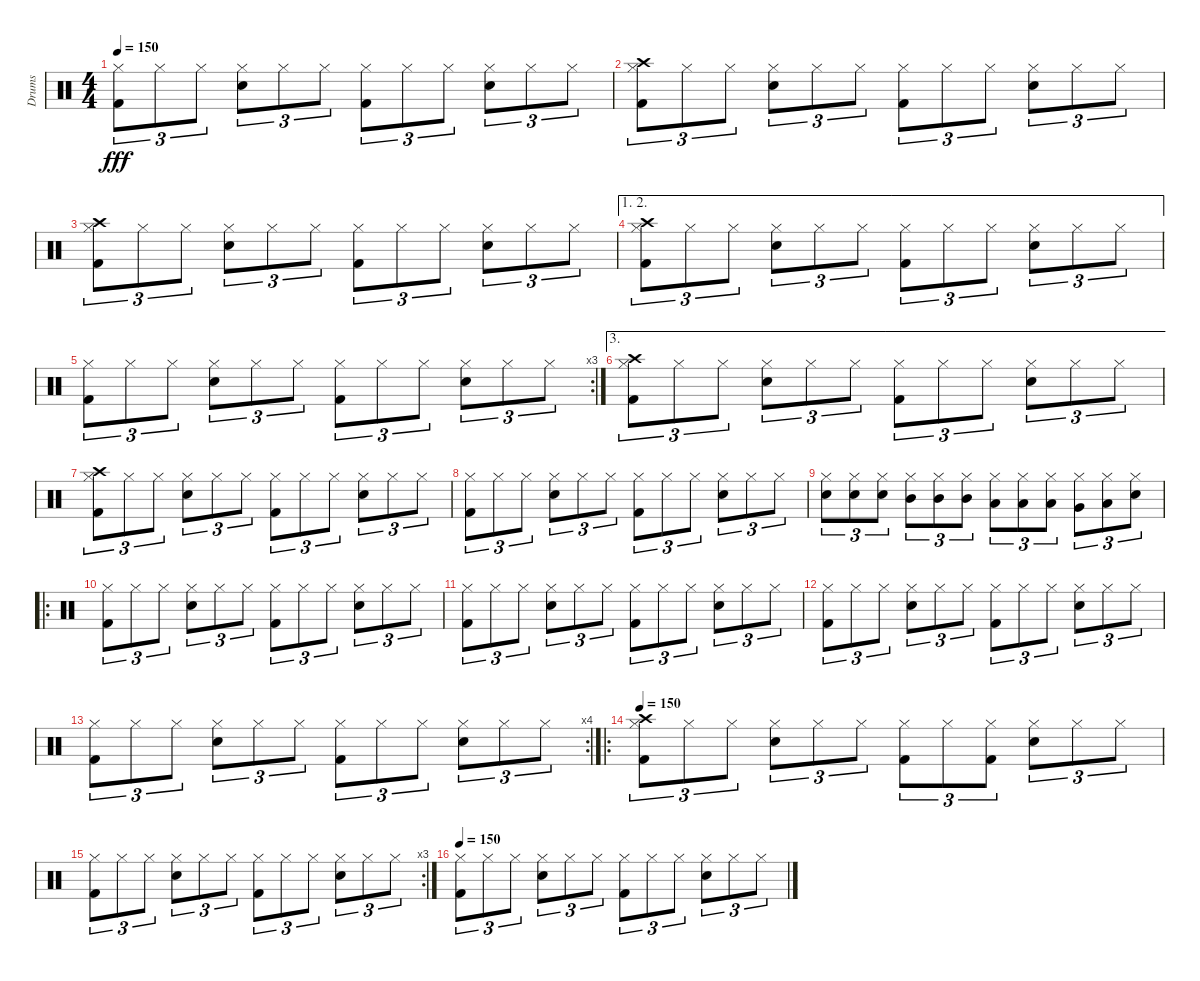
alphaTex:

\track ("Drums" "Drums") {instrument percussion}
\staff {score}
\articulation defaults
\ts (4 4)
\tempo 150
\clef neutral
\ks c
("Hi-Hat (closed)" "Kick (hit) 2").8{tu (3 2) dy fff} "Hi-Hat (closed)".8{tu (3 2)} "Hi-Hat (closed)".8{tu (3 2)} ("Hi-Hat (closed)" "Snare (hit) 2").8{tu (3 2)} "Hi-Hat (closed)".8{tu (3 2)} "Hi-Hat (closed)".8{tu (3 2)} ("Hi-Hat (closed)" "Kick (hit) 2").8{tu (3 2)} "Hi-Hat (closed)".8{tu (3 2)} "Hi-Hat (closed)".8{tu (3 2)} ("Hi-Hat (closed)" "Snare (hit) 2").8{tu (3 2)} "Hi-Hat (closed)".8{tu (3 2)} "Hi-Hat (closed)".8{tu (3 2)} |
("Hi-Hat (closed)" "Kick (hit) 2" "Crash high (hit)").8{tu (3 2)} "Hi-Hat (closed)".8{tu (3 2)} "Hi-Hat (closed)".8{tu (3 2)} ("Hi-Hat (closed)" "Snare (hit) 2").8{tu (3 2)} "Hi-Hat (closed)".8{tu (3 2)} "Hi-Hat (closed)".8{tu (3 2)} ("Hi-Hat (closed)" "Kick (hit) 2").8{tu (3 2)} "Hi-Hat (closed)".8{tu (3 2)} "Hi-Hat (closed)".8{tu (3 2)} ("Hi-Hat (closed)" "Snare (hit) 2").8{tu (3 2)} "Hi-Hat (closed)".8{tu (3 2)} "Hi-Hat (closed)".8{tu (3 2)} |
("Hi-Hat (closed)" "Kick (hit) 2" "Crash high (hit)").8{tu (3 2)} "Hi-Hat (closed)".8{tu (3 2)} "Hi-Hat (closed)".8{tu (3 2)} ("Hi-Hat (closed)" "Snare (hit) 2").8{tu (3 2)} "Hi-Hat (closed)".8{tu (3 2)} "Hi-Hat (closed)".8{tu (3 2)} ("Hi-Hat (closed)" "Kick (hit) 2").8{tu (3 2)} "Hi-Hat (closed)".8{tu (3 2)} "Hi-Hat (closed)".8{tu (3 2)} ("Hi-Hat (closed)" "Snare (hit) 2").8{tu (3 2)} "Hi-Hat (closed)".8{tu (3 2)} "Hi-Hat (closed)".8{tu (3 2)} |
\ae (1 2)
("Hi-Hat (closed)" "Kick (hit) 2" "Crash high (hit)").8{tu (3 2)} "Hi-Hat (closed)".8{tu (3 2)} "Hi-Hat (closed)".8{tu (3 2)} ("Hi-Hat (closed)" "Snare (hit) 2").8{tu (3 2)} "Hi-Hat (closed)".8{tu (3 2)} "Hi-Hat (closed)".8{tu (3 2)} ("Hi-Hat (closed)" "Kick (hit) 2").8{tu (3 2)} "Hi-Hat (closed)".8{tu (3 2)} "Hi-Hat (closed)".8{tu (3 2)} ("Hi-Hat (closed)" "Snare (hit) 2").8{tu (3 2)} "Hi-Hat (closed)".8{tu (3 2)} "Hi-Hat (closed)".8{tu (3 2)} |
\rc 3
("Hi-Hat (closed)" "Kick (hit) 2").8{tu (3 2)} "Hi-Hat (closed)".8{tu (3 2)} "Hi-Hat (closed)".8{tu (3 2)} ("Hi-Hat (closed)" "Snare (hit) 2").8{tu (3 2)} "Hi-Hat (closed)".8{tu (3 2)} "Hi-Hat (closed)".8{tu (3 2)} ("Hi-Hat (closed)" "Kick (hit) 2").8{tu (3 2)} "Hi-Hat (closed)".8{tu (3 2)} "Hi-Hat (closed)".8{tu (3 2)} ("Hi-Hat (closed)" "Snare (hit) 2").8{tu (3 2)} "Hi-Hat (closed)".8{tu (3 2)} "Hi-Hat (closed)".8{tu (3 2)} |
\ae 3
("Hi-Hat (closed)" "Kick (hit) 2" "Crash high (hit)").8{tu (3 2)} "Hi-Hat (closed)".8{tu (3 2)} "Hi-Hat (closed)".8{tu (3 2)} ("Hi-Hat (closed)" "Snare (hit) 2").8{tu (3 2)} "Hi-Hat (closed)".8{tu (3 2)} "Hi-Hat (closed)".8{tu (3 2)} ("Hi-Hat (closed)" "Kick (hit) 2").8{tu (3 2)} "Hi-Hat (closed)".8{tu (3 2)} "Hi-Hat (closed)".8{tu (3 2)} ("Hi-Hat (closed)" "Snare (hit) 2").8{tu (3 2)} "Hi-Hat (closed)".8{tu (3 2)} "Hi-Hat (closed)".8{tu (3 2)} |
("Hi-Hat (closed)" "Kick (hit) 2" "Crash high (hit)").8{tu (3 2)} "Hi-Hat (closed)".8{tu (3 2)} "Hi-Hat (closed)".8{tu (3 2)} ("Hi-Hat (closed)" "Snare (hit) 2").8{tu (3 2)} "Hi-Hat (closed)".8{tu (3 2)} "Hi-Hat (closed)".8{tu (3 2)} ("Hi-Hat (closed)" "Kick (hit) 2").8{tu (3 2)} "Hi-Hat (closed)".8{tu (3 2)} "Hi-Hat (closed)".8{tu (3 2)} ("Hi-Hat (closed)" "Snare (hit) 2").8{tu (3 2)} "Hi-Hat (closed)".8{tu (3 2)} "Hi-Hat (closed)".8{tu (3 2)} |
("Hi-Hat (closed)" "Kick (hit) 2").8{tu (3 2)} "Hi-Hat (closed)".8{tu (3 2)} "Hi-Hat (closed)".8{tu (3 2)} ("Hi-Hat (closed)" "Snare (hit) 2").8{tu (3 2)} "Hi-Hat (closed)".8{tu (3 2)} "Hi-Hat (closed)".8{tu (3 2)} ("Hi-Hat (closed)" "Kick (hit) 2").8{tu (3 2)} "Hi-Hat (closed)".8{tu (3 2)} "Hi-Hat (closed)".8{tu (3 2)} ("Hi-Hat (closed)" "Snare (hit) 2").8{tu (3 2)} "Hi-Hat (closed)".8{tu (3 2)} "Hi-Hat (closed)".8{tu (3 2)} |
("Snare (hit) 2" "Hi-Hat (closed)").8{tu (3 2)} ("Snare (hit) 2" "Hi-Hat (closed)").8{tu (3 2)} ("Snare (hit) 2" "Hi-Hat (closed)").8{tu (3 2)} ("Mid Tom (hit)" "Hi-Hat (closed)").8{tu (3 2)} ("Mid Tom (hit)" "Hi-Hat (closed)").8{tu (3 2)} ("Mid Tom (hit)" "Hi-Hat (closed)").8{tu (3 2)} ("Low Tom (hit)" "Hi-Hat (closed)").8{tu (3 2)} ("Low Tom (hit)" "Hi-Hat (closed)").8{tu (3 2)} ("Low Tom (hit)" "Hi-Hat (closed)").8{tu (3 2)} ("Very Low Tom (hit)" "Hi-Hat (closed)").8{tu (3 2)} ("Low Floor Tom (hit)" "Hi-Hat (closed)").8{tu (3 2)} ("Electric Snare (hit)" "Hi-Hat (closed)").8{tu (3 2)} |
\ro
("Hi-Hat (closed)" "Kick (hit) 2").8{tu (3 2)} "Hi-Hat (closed)".8{tu (3 2)} "Hi-Hat (closed)".8{tu (3 2)} ("Hi-Hat (closed)" "Snare (hit) 2").8{tu (3 2)} "Hi-Hat (closed)".8{tu (3 2)} "Hi-Hat (closed)".8{tu (3 2)} ("Hi-Hat (closed)" "Kick (hit) 2").8{tu (3 2)} "Hi-Hat (closed)".8{tu (3 2)} "Hi-Hat (closed)".8{tu (3 2)} ("Hi-Hat (closed)" "Snare (hit) 2").8{tu (3 2)} "Hi-Hat (closed)".8{tu (3 2)} "Hi-Hat (closed)".8{tu (3 2)} |
("Hi-Hat (closed)" "Kick (hit) 2").8{tu (3 2)} "Hi-Hat (closed)".8{tu (3 2)} "Hi-Hat (closed)".8{tu (3 2)} ("Hi-Hat (closed)" "Snare (hit) 2").8{tu (3 2)} "Hi-Hat (closed)".8{tu (3 2)} "Hi-Hat (closed)".8{tu (3 2)} ("Hi-Hat (closed)" "Kick (hit) 2").8{tu (3 2)} "Hi-Hat (closed)".8{tu (3 2)} "Hi-Hat (closed)".8{tu (3 2)} ("Hi-Hat (closed)" "Snare (hit) 2").8{tu (3 2)} "Hi-Hat (closed)".8{tu (3 2)} "Hi-Hat (closed)".8{tu (3 2)} |
("Hi-Hat (closed)" "Kick (hit) 2").8{tu (3 2)} "Hi-Hat (closed)".8{tu (3 2)} "Hi-Hat (closed)".8{tu (3 2)} ("Hi-Hat (closed)" "Snare (hit) 2").8{tu (3 2)} "Hi-Hat (closed)".8{tu (3 2)} "Hi-Hat (closed)".8{tu (3 2)} ("Hi-Hat (closed)" "Kick (hit) 2").8{tu (3 2)} "Hi-Hat (closed)".8{tu (3 2)} "Hi-Hat (closed)".8{tu (3 2)} ("Hi-Hat (closed)" "Snare (hit) 2").8{tu (3 2)} "Hi-Hat (closed)".8{tu (3 2)} "Hi-Hat (closed)".8{tu (3 2)} |
\rc 4
("Hi-Hat (closed)" "Kick (hit) 2").8{tu (3 2)} "Hi-Hat (closed)".8{tu (3 2)} "Hi-Hat (closed)".8{tu (3 2)} ("Hi-Hat (closed)" "Snare (hit) 2").8{tu (3 2)} "Hi-Hat (closed)".8{tu (3 2)} "Hi-Hat (closed)".8{tu (3 2)} ("Hi-Hat (closed)" "Kick (hit) 2").8{tu (3 2)} "Hi-Hat (closed)".8{tu (3 2)} "Hi-Hat (closed)".8{tu (3 2)} ("Hi-Hat (closed)" "Snare (hit) 2").8{tu (3 2)} "Hi-Hat (closed)".8{tu (3 2)} "Hi-Hat (closed)".8{tu (3 2)} |
\ro
\tempo 150
("Hi-Hat (closed)" "Kick (hit) 2" "Crash high (hit)").8{tu (3 2)} "Hi-Hat (closed)".8{tu (3 2)} "Hi-Hat (closed)".8{tu (3 2)} ("Hi-Hat (closed)" "Snare (hit) 2").8{tu (3 2)} "Hi-Hat (closed)".8{tu (3 2)} "Hi-Hat (closed)".8{tu (3 2)} ("Hi-Hat (closed)" "Kick (hit) 2").8{tu (3 2)} "Hi-Hat (closed)".8{tu (3 2)} ("Hi-Hat (closed)" "Kick (hit) 2").8{tu (3 2)} ("Hi-Hat (closed)" "Snare (hit) 2").8{tu (3 2)} "Hi-Hat (closed)".8{tu (3 2)} "Hi-Hat (closed)".8{tu (3 2)} |
\rc 3
("Hi-Hat (closed)" "Kick (hit) 2").8{tu (3 2)} "Hi-Hat (closed)".8{tu (3 2)} "Hi-Hat (closed)".8{tu (3 2)} ("Hi-Hat (closed)" "Snare (hit) 2").8{tu (3 2)} "Hi-Hat (closed)".8{tu (3 2)} "Hi-Hat (closed)".8{tu (3 2)} ("Hi-Hat (closed)" "Kick (hit) 2").8{tu (3 2)} "Hi-Hat (closed)".8{tu (3 2)} "Hi-Hat (closed)".8{tu (3 2)} ("Hi-Hat (closed)" "Snare (hit) 2").8{tu (3 2)} "Hi-Hat (closed)".8{tu (3 2)} "Hi-Hat (closed)".8{tu (3 2)} |
\tempo 150
("Hi-Hat (closed)" "Kick (hit) 2").8{tu (3 2)} "Hi-Hat (closed)".8{tu (3 2)} "Hi-Hat (closed)".8{tu (3 2)} ("Hi-Hat (closed)" "Snare (hit) 2").8{tu (3 2)} "Hi-Hat (closed)".8{tu (3 2)} "Hi-Hat (closed)".8{tu (3 2)} ("Hi-Hat (closed)" "Kick (hit) 2").8{tu (3 2)} "Hi-Hat (closed)".8{tu (3 2)} "Hi-Hat (closed)".8{tu (3 2)} ("Hi-Hat (closed)" "Snare (hit) 2").8{tu (3 2)} "Hi-Hat (closed)".8{tu (3 2)} "Hi-Hat (closed)".8{tu (3 2)}
